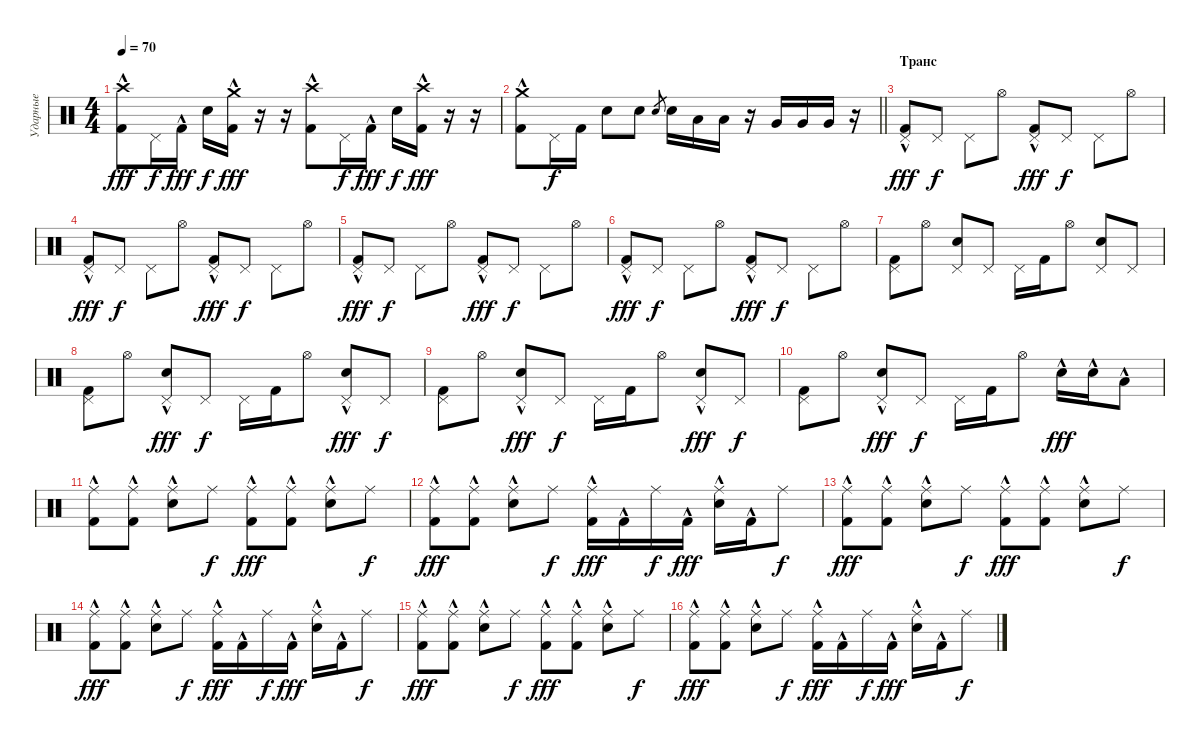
\track ("Ударные" "Ударные") {instrument percussion}
\staff {score}
\articulation defaults
\ts (4 4)
\tempo 70
\clef neutral
\ks c
("Crash high (hit)" "Kick (hit) 2"{hac}).8{dy fff} "Pedal Hi-Hat (hit)".16{dy f} "Kick (hit) 2"{hac}.16{dy fff} "Snare (hit) 2".16{dy f} ("Crash medium (hit)" "Kick (hit) 2"{hac}).16{dy fff} r.16 r.16 ("Crash high (hit)" "Kick (hit) 2"{hac}).8 "Pedal Hi-Hat (hit)".16{dy f} "Kick (hit) 2"{hac}.16{dy fff} "Snare (hit) 2".16{dy f} ("Crash high (hit)" "Kick (hit) 2"{hac}).16{dy fff} r.16 r.16 |
\barLineRight lightlight
("Kick (hit) 2"{hac} "Crash medium (hit)").8 "Pedal Hi-Hat (hit)".16{dy f} "Kick (hit) 2".16 "Snare (hit) 2".8 "Snare (hit) 2".8 "Snare (hit) 2".8{gr} "Snare (hit) 2".16 "Low Tom (hit)".16 "Low Tom (hit)".16 r.16 "Very Low Tom (hit)".16 "Very Low Tom (hit)".16 "Very Low Tom (hit)".16 r.16 |
\section ("" "Транс")
("Kick (hit) 2"{hac} "Pedal Hi-Hat (hit)").8{dy fff} "Pedal Hi-Hat (hit)".8{dy f} "Pedal Hi-Hat (hit)".8 "Hi-Hat (open)".8 ("Pedal Hi-Hat (hit)" "Kick (hit) 2"{hac}).8{dy fff} "Pedal Hi-Hat (hit)".8{dy f} "Pedal Hi-Hat (hit)".8 "Hi-Hat (open)".8 |
("Kick (hit) 2"{hac} "Pedal Hi-Hat (hit)").8{dy fff} "Pedal Hi-Hat (hit)".8{dy f} "Pedal Hi-Hat (hit)".8 "Hi-Hat (open)".8 ("Pedal Hi-Hat (hit)" "Kick (hit) 2"{hac}).8{dy fff} "Pedal Hi-Hat (hit)".8{dy f} "Pedal Hi-Hat (hit)".8 "Hi-Hat (open)".8 |
("Kick (hit) 2"{hac} "Pedal Hi-Hat (hit)").8{dy fff} "Pedal Hi-Hat (hit)".8{dy f} "Pedal Hi-Hat (hit)".8 "Hi-Hat (open)".8 ("Pedal Hi-Hat (hit)" "Kick (hit) 2"{hac}).8{dy fff} "Pedal Hi-Hat (hit)".8{dy f} "Pedal Hi-Hat (hit)".8 "Hi-Hat (open)".8 |
("Kick (hit) 2"{hac} "Pedal Hi-Hat (hit)").8{dy fff} "Pedal Hi-Hat (hit)".8{dy f} "Pedal Hi-Hat (hit)".8 "Hi-Hat (open)".8 ("Pedal Hi-Hat (hit)" "Kick (hit) 2"{hac}).8{dy fff} "Pedal Hi-Hat (hit)".8{dy f} "Pedal Hi-Hat (hit)".8 "Hi-Hat (open)".8 |
("Kick (hit) 2" "Pedal Hi-Hat (hit)").8 "Hi-Hat (open)".8 ("Pedal Hi-Hat (hit)" "Snare (hit) 2").8 "Pedal Hi-Hat (hit)".8 "Pedal Hi-Hat (hit)".16 "Kick (hit) 2".16 "Hi-Hat (open)".8 ("Pedal Hi-Hat (hit)" "Snare (hit) 2").8 "Pedal Hi-Hat (hit)".8 |
("Kick (hit) 2" "Pedal Hi-Hat (hit)").8 "Hi-Hat (open)".8 ("Pedal Hi-Hat (hit)" "Snare (hit) 2"{hac}).8{dy fff} "Pedal Hi-Hat (hit)".8{dy f} "Pedal Hi-Hat (hit)".16 "Kick (hit) 2".16 "Hi-Hat (open)".8 ("Pedal Hi-Hat (hit)" "Snare (hit) 2"{hac}).8{dy fff} "Pedal Hi-Hat (hit)".8{dy f} |
("Kick (hit) 2" "Pedal Hi-Hat (hit)").8 "Hi-Hat (open)".8 ("Pedal Hi-Hat (hit)" "Snare (hit) 2"{hac}).8{dy fff} "Pedal Hi-Hat (hit)".8{dy f} "Pedal Hi-Hat (hit)".16 "Kick (hit) 2".16 "Hi-Hat (open)".8 ("Pedal Hi-Hat (hit)" "Snare (hit) 2"{hac}).8{dy fff} "Pedal Hi-Hat (hit)".8{dy f} |
("Kick (hit) 2" "Pedal Hi-Hat (hit)").8 "Hi-Hat (open)".8 ("Pedal Hi-Hat (hit)" "Snare (hit) 2"{hac}).8{dy fff} "Pedal Hi-Hat (hit)".8{dy f} "Pedal Hi-Hat (hit)".16 "Kick (hit) 2".16 "Hi-Hat (open)".8 "Snare (hit) 2"{hac}.16{dy fff} "Snare (hit) 2"{hac}.16 "Low Tom (hit)"{hac}.8 |
("Kick (hit) 2"{hac} "Ride (middle)").8 ("Kick (hit) 2"{hac} "Ride (middle)").8 ("Ride (middle)" "Snare (hit) 2"{hac}).8 "Ride (middle)".8{dy f} ("Ride (middle)" "Kick (hit) 2"{hac}).8{dy fff} ("Ride (middle)" "Kick (hit) 2"{hac}).8 ("Snare (hit) 2"{hac} "Ride (middle)").8 "Ride (middle)".8{dy f} |
("Kick (hit) 2"{hac} "Ride (middle)").8{dy fff} ("Kick (hit) 2"{hac} "Ride (middle)").8 ("Ride (middle)" "Snare (hit) 2"{hac}).8 "Ride (middle)".8{dy f} ("Ride (middle)" "Kick (hit) 2"{hac}).16{dy fff} "Kick (hit) 2"{hac}.16 "Ride (middle)".16{dy f} "Kick (hit) 2"{hac}.16{dy fff} ("Snare (hit) 2"{hac} "Ride (middle)").16 "Kick (hit) 2"{hac}.16 "Ride (middle)".8{dy f} |
("Kick (hit) 2"{hac} "Ride (middle)").8{dy fff} ("Kick (hit) 2"{hac} "Ride (middle)").8 ("Ride (middle)" "Snare (hit) 2"{hac}).8 "Ride (middle)".8{dy f} ("Ride (middle)" "Kick (hit) 2"{hac}).8{dy fff} ("Ride (middle)" "Kick (hit) 2"{hac}).8 ("Snare (hit) 2"{hac} "Ride (middle)").8 "Ride (middle)".8{dy f} |
("Kick (hit) 2"{hac} "Ride (middle)").8{dy fff} ("Kick (hit) 2"{hac} "Ride (middle)").8 ("Ride (middle)" "Snare (hit) 2"{hac}).8 "Ride (middle)".8{dy f} ("Ride (middle)" "Kick (hit) 2"{hac}).16{dy fff} "Kick (hit) 2"{hac}.16 "Ride (middle)".16{dy f} "Kick (hit) 2"{hac}.16{dy fff} ("Snare (hit) 2"{hac} "Ride (middle)").16 "Kick (hit) 2"{hac}.16 "Ride (middle)".8{dy f} |
("Kick (hit) 2"{hac} "Ride (middle)").8{dy fff} ("Kick (hit) 2"{hac} "Ride (middle)").8 ("Ride (middle)" "Snare (hit) 2"{hac}).8 "Ride (middle)".8{dy f} ("Ride (middle)" "Kick (hit) 2"{hac}).8{dy fff} ("Ride (middle)" "Kick (hit) 2"{hac}).8 ("Snare (hit) 2"{hac} "Ride (middle)").8 "Ride (middle)".8{dy f} |
("Kick (hit) 2"{hac} "Ride (middle)").8{dy fff} ("Kick (hit) 2"{hac} "Ride (middle)").8 ("Ride (middle)" "Snare (hit) 2"{hac}).8 "Ride (middle)".8{dy f} ("Ride (middle)" "Kick (hit) 2"{hac}).16{dy fff} "Kick (hit) 2"{hac}.16 "Ride (middle)".16{dy f} "Kick (hit) 2"{hac}.16{dy fff} ("Snare (hit) 2"{hac} "Ride (middle)").16 "Kick (hit) 2"{hac}.16 "Ride (middle)".8{dy f}
